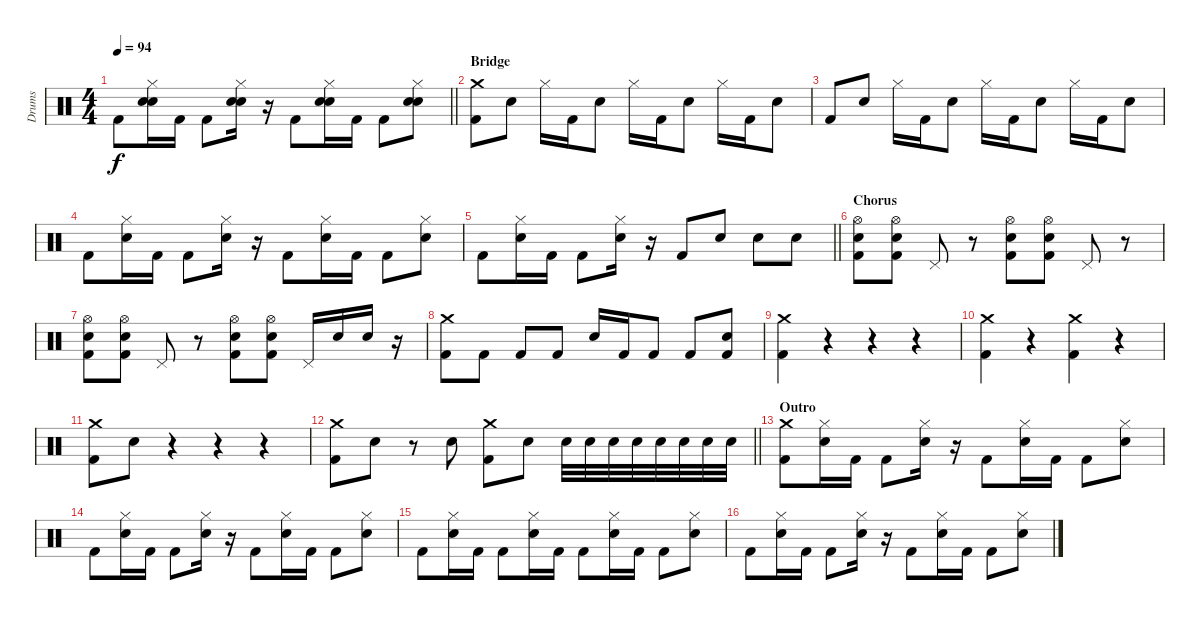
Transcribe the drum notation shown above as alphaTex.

\track ("Drums" "Drums") {instrument percussion}
\staff {score}
\articulation defaults
\ts (4 4)
\tempo 94
\clef neutral
\barLineRight lightlight
\ks c "Kick (hit) 2".8{dy f}
("Hi-Hat (closed)" "Hand Clap (hit)" "Electric Snare (hit)").16 "Kick (hit) 2".16 "Kick (hit) 2".8 ("Hi-Hat (closed)" "Hand Clap (hit)" "Electric Snare (hit)").16 r.16 "Kick (hit) 2".8 ("Hi-Hat (closed)" "Hand Clap (hit)" "Electric Snare (hit)").16 "Kick (hit) 2".16 "Kick (hit) 2".8 ("Hi-Hat (closed)" "Hand Clap (hit)" "Electric Snare (hit)").8 |
\section ("" "Bridge")
("Crash medium (hit)" "Kick (hit) 2").8 "Electric Snare (hit)".8 "Hi-Hat (closed)".16 "Kick (hit) 2".16 "Electric Snare (hit)".8 "Hi-Hat (closed)".16 "Kick (hit) 2".16 "Electric Snare (hit)".8 "Hi-Hat (closed)".16 "Kick (hit) 2".16 "Electric Snare (hit)".8 |
"Kick (hit) 2".8 "Electric Snare (hit)".8 "Hi-Hat (closed)".16 "Kick (hit) 2".16 "Electric Snare (hit)".8 "Hi-Hat (closed)".16 "Kick (hit) 2".16 "Electric Snare (hit)".8 "Hi-Hat (closed)".16 "Kick (hit) 2".16 "Electric Snare (hit)".8 |
"Kick (hit) 2".8 ("Hi-Hat (closed)" "Electric Snare (hit)").16 "Kick (hit) 2".16 "Kick (hit) 2".8 ("Hi-Hat (closed)" "Electric Snare (hit)").16 r.16 "Kick (hit) 2".8 ("Hi-Hat (closed)" "Electric Snare (hit)").16 "Kick (hit) 2".16 "Kick (hit) 2".8 ("Hi-Hat (closed)" "Electric Snare (hit)").8 |
\barLineRight lightlight "Kick (hit) 2".8
("Hi-Hat (closed)" "Electric Snare (hit)").16 "Kick (hit) 2".16 "Kick (hit) 2".8 ("Hi-Hat (closed)" "Electric Snare (hit)").16 r.16 "Kick (hit) 2".8 "Electric Snare (hit)".8 "Electric Snare (hit)".8 "Electric Snare (hit)".8 |
\section ("" "Chorus")
("Hi-Hat (open)" "Electric Snare (hit)" "Kick (hit) 2").8 ("Hi-Hat (open)" "Electric Snare (hit)" "Kick (hit) 2").8 "Pedal Hi-Hat (hit)".8 r.8 ("Hi-Hat (open)" "Electric Snare (hit)" "Kick (hit) 2").8 ("Hi-Hat (open)" "Electric Snare (hit)" "Kick (hit) 2").8 "Pedal Hi-Hat (hit)".8 r.8 |
("Hi-Hat (open)" "Electric Snare (hit)" "Kick (hit) 2").8 ("Hi-Hat (open)" "Electric Snare (hit)" "Kick (hit) 2").8 "Pedal Hi-Hat (hit)".8 r.8 ("Hi-Hat (open)" "Electric Snare (hit)" "Kick (hit) 2").8 ("Hi-Hat (open)" "Electric Snare (hit)" "Kick (hit) 2").8 "Pedal Hi-Hat (hit)".16 "Electric Snare (hit)".16 "Electric Snare (hit)".16 r.16 |
("Crash medium (hit)" "Kick (hit) 2").8 "Kick (hit) 2".8 "Kick (hit) 2".8 "Kick (hit) 2".8 "Electric Snare (hit)".16 "Kick (hit) 2".16 "Kick (hit) 2".8 "Kick (hit) 2".8 ("Electric Snare (hit)" "Kick (hit) 2").8 |
("Crash medium (hit)" "Kick (hit) 2").4 r.4 r.4 r.4 |
("Crash medium (hit)" "Kick (hit) 2").4 r.4 ("Crash medium (hit)" "Kick (hit) 2").4 r.4 |
("Crash medium (hit)" "Kick (hit) 2").8 "Electric Snare (hit)".8 r.4 r.4 r.4 |
\barLineRight lightlight
("Crash medium (hit)" "Kick (hit) 2").8 "Electric Snare (hit)".8 r.8 "Electric Snare (hit)".8 ("Crash medium (hit)" "Kick (hit) 2").8 "Electric Snare (hit)".8 "Electric Snare (hit)".32 "Electric Snare (hit)".32 "Electric Snare (hit)".32 "Electric Snare (hit)".32 "Electric Snare (hit)".32 "Electric Snare (hit)".32 "Electric Snare (hit)".32 "Electric Snare (hit)".32 |
\section ("" "Outro")
("Crash medium (hit)" "Kick (hit) 2").8 ("Hi-Hat (closed)" "Electric Snare (hit)").16 "Kick (hit) 2".16 "Kick (hit) 2".8 ("Hi-Hat (closed)" "Electric Snare (hit)").16 r.16 "Kick (hit) 2".8 ("Hi-Hat (closed)" "Electric Snare (hit)").16 "Kick (hit) 2".16 "Kick (hit) 2".8 ("Hi-Hat (closed)" "Electric Snare (hit)").8 |
"Kick (hit) 2".8 ("Hi-Hat (closed)" "Electric Snare (hit)").16 "Kick (hit) 2".16 "Kick (hit) 2".8 ("Hi-Hat (closed)" "Electric Snare (hit)").16 r.16 "Kick (hit) 2".8 ("Hi-Hat (closed)" "Electric Snare (hit)").16 "Kick (hit) 2".16 "Kick (hit) 2".8 ("Hi-Hat (closed)" "Electric Snare (hit)").8 |
"Kick (hit) 2".8 ("Hi-Hat (closed)" "Electric Snare (hit)").16 "Kick (hit) 2".16 "Kick (hit) 2".8 ("Hi-Hat (closed)" "Electric Snare (hit)").16 "Kick (hit) 2".16 "Kick (hit) 2".8 ("Hi-Hat (closed)" "Electric Snare (hit)").16 "Kick (hit) 2".16 "Kick (hit) 2".8 ("Hi-Hat (closed)" "Electric Snare (hit)").8 |
"Kick (hit) 2".8 ("Hi-Hat (closed)" "Electric Snare (hit)").16 "Kick (hit) 2".16 "Kick (hit) 2".8 ("Hi-Hat (closed)" "Electric Snare (hit)").16 r.16 "Kick (hit) 2".8 ("Hi-Hat (closed)" "Electric Snare (hit)").16 "Kick (hit) 2".16 "Kick (hit) 2".8 ("Hi-Hat (closed)" "Electric Snare (hit)").8
